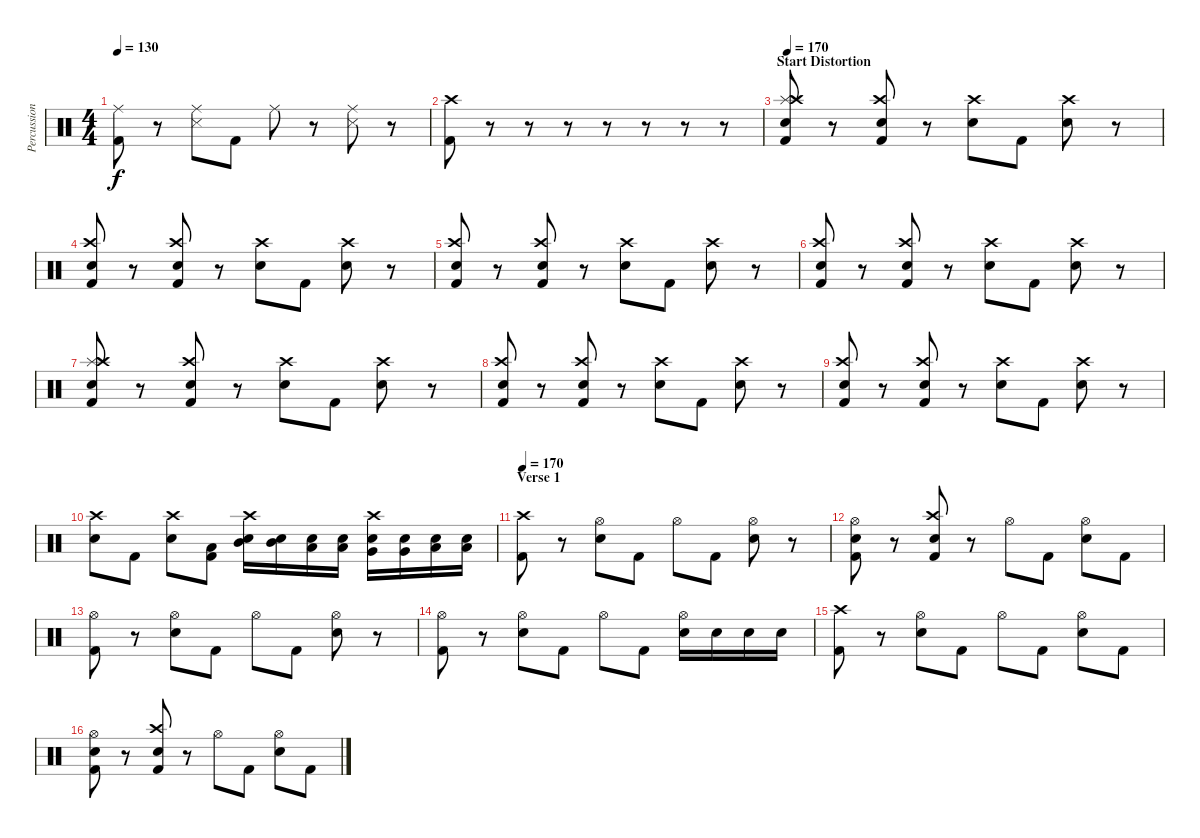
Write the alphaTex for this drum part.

\track ("Percussion" "Percussion") {instrument percussion}
\staff {score}
\articulation defaults
\ts (4 4)
\tempo 130
\clef neutral
\ks c
("Ride (middle)" "Kick (hit) 2").8{dy f} r.8 ("Ride (middle)" "Metronome (hit)").8 "Kick (hit) 2".8 "Ride (middle)".8 r.8 ("Ride (middle)" "Metronome (hit)").8 r.8 |
("Crash high (hit)" "Kick (hit) 2").8 r.8 r.8 r.8 r.8 r.8 r.8 r.8 |
\section ("" "Start Distortion")
\tempo 170
("Splash (hit)" "Crash high (hit)" "Snare (hit) 2" "Kick (hit) 2").8 r.8 ("Crash high (hit)" "Snare (hit) 2" "Kick (hit) 2").8 r.8 ("Crash high (hit)" "Snare (hit) 2").8 "Kick (hit) 2".8 ("Crash high (hit)" "Snare (hit) 2").8 r.8 |
("Crash high (hit)" "Snare (hit) 2" "Kick (hit) 2").8 r.8 ("Crash high (hit)" "Snare (hit) 2" "Kick (hit) 2").8 r.8 ("Crash high (hit)" "Snare (hit) 2").8 "Kick (hit) 2".8 ("Crash high (hit)" "Snare (hit) 2").8 r.8 |
("Crash high (hit)" "Snare (hit) 2" "Kick (hit) 2").8 r.8 ("Crash high (hit)" "Snare (hit) 2" "Kick (hit) 2").8 r.8 ("Crash high (hit)" "Snare (hit) 2").8 "Kick (hit) 2".8 ("Crash high (hit)" "Snare (hit) 2").8 r.8 |
("Crash high (hit)" "Snare (hit) 2" "Kick (hit) 2").8 r.8 ("Crash high (hit)" "Snare (hit) 2" "Kick (hit) 2").8 r.8 ("Crash high (hit)" "Snare (hit) 2").8 "Kick (hit) 2".8 ("Crash high (hit)" "Snare (hit) 2").8 r.8 |
("Splash (hit)" "Crash high (hit)" "Snare (hit) 2" "Kick (hit) 2").8 r.8 ("Crash high (hit)" "Snare (hit) 2" "Kick (hit) 2").8 r.8 ("Crash high (hit)" "Snare (hit) 2").8 "Kick (hit) 2".8 ("Crash high (hit)" "Snare (hit) 2").8 r.8 |
("Crash high (hit)" "Snare (hit) 2" "Kick (hit) 2").8 r.8 ("Crash high (hit)" "Snare (hit) 2" "Kick (hit) 2").8 r.8 ("Crash high (hit)" "Snare (hit) 2").8 "Kick (hit) 2".8 ("Crash high (hit)" "Snare (hit) 2").8 r.8 |
("Crash high (hit)" "Snare (hit) 2" "Kick (hit) 2").8 r.8 ("Crash high (hit)" "Snare (hit) 2" "Kick (hit) 2").8 r.8 ("Crash high (hit)" "Snare (hit) 2").8 "Kick (hit) 2".8 ("Crash high (hit)" "Snare (hit) 2").8 r.8 |
("Crash high (hit)" "Snare (hit) 2").8 "Kick (hit) 2".8 ("Crash high (hit)" "Snare (hit) 2").8 ("Low Tom (hit)" "Kick (hit) 2").8 ("Crash high (hit)" "Mid Tom (hit)" "Snare (hit) 2").16 ("Mid Tom (hit)" "Snare (hit) 2").16 ("Low Tom (hit)" "Snare (hit) 2").16 ("Low Tom (hit)" "Snare (hit) 2").16 ("Crash high (hit)" "Very Low Tom (hit)" "Snare (hit) 2").16 ("Very Low Tom (hit)" "Snare (hit) 2").16 ("Low Floor Tom (hit)" "Snare (hit) 2").16 ("Low Floor Tom (hit)" "Snare (hit) 2").16 |
\section ("" "Verse 1")
\tempo 170
("Crash high (hit)" "Kick (hit) 2").8 r.8 ("Hi-Hat (open)" "Snare (hit) 2").8 "Kick (hit) 2".8 "Hi-Hat (open)".8 "Kick (hit) 2".8 ("Hi-Hat (open)" "Snare (hit) 2").8 r.8 |
("Hi-Hat (open)" "Snare (hit) 2" "Kick (hit) 2").8 r.8 ("Crash high (hit)" "Snare (hit) 2" "Kick (hit) 2").8 r.8 "Hi-Hat (open)".8 "Kick (hit) 2".8 ("Hi-Hat (open)" "Snare (hit) 2").8 "Kick (hit) 2".8 |
("Hi-Hat (open)" "Kick (hit) 2").8 r.8 ("Hi-Hat (open)" "Snare (hit) 2").8 "Kick (hit) 2".8 "Hi-Hat (open)".8 "Kick (hit) 2".8 ("Hi-Hat (open)" "Snare (hit) 2").8 r.8 |
("Hi-Hat (open)" "Kick (hit) 2").8 r.8 ("Hi-Hat (open)" "Snare (hit) 2").8 "Kick (hit) 2".8 "Hi-Hat (open)".8 "Kick (hit) 2".8 ("Hi-Hat (open)" "Snare (hit) 2").16 "Snare (hit) 2".16 "Snare (hit) 2".16 "Snare (hit) 2".16 |
("Crash high (hit)" "Kick (hit) 2").8 r.8 ("Hi-Hat (open)" "Snare (hit) 2").8 "Kick (hit) 2".8 "Hi-Hat (open)".8 "Kick (hit) 2".8 ("Hi-Hat (open)" "Snare (hit) 2").8 "Kick (hit) 2".8 |
("Hi-Hat (open)" "Snare (hit) 2" "Kick (hit) 2").8 r.8 ("Crash high (hit)" "Snare (hit) 2" "Kick (hit) 2").8 r.8 "Hi-Hat (open)".8 "Kick (hit) 2".8 ("Hi-Hat (open)" "Snare (hit) 2").8 "Kick (hit) 2".8
